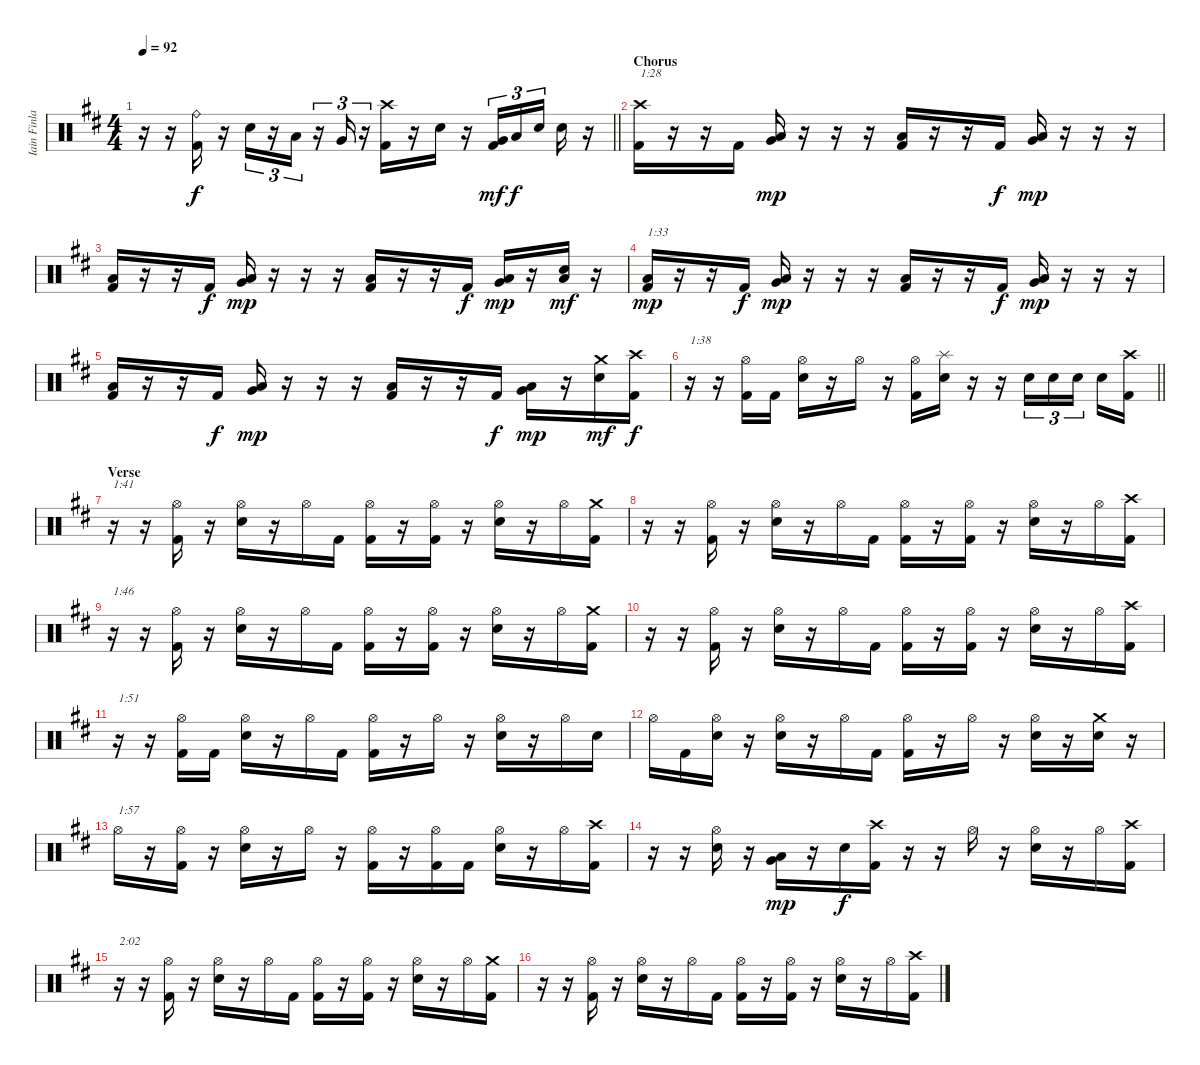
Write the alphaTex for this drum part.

\track ("Iain Finlay" "Iain Finla") {instrument percussion}
\staff {score}
\articulation defaults
\ts (4 4)
\tempo 92
\clef neutral
\barLineRight lightlight
\ks bminor
r.16{dy f} r.16 ("Ride (bell)" "Kick (hit) 2").16 r.16 "Electric Snare (hit)".16{tu (3 2)} r.16{tu (3 2)} "Low Tom (hit)".16{tu (3 2)} r.16{tu (3 2)} "Very Low Tom (hit)".16{tu (3 2)} r.16{tu (3 2)} ("Crash high (hit)" "Kick (hit) 2").16 r.16 "Electric Snare (hit)".16 r.16 ("Very Low Tom (hit)" "Kick (hit) 2").16{tu (3 2) dy mf} "Low Floor Tom (hit)".16{tu (3 2) dy f} "Electric Snare (hit)".16{tu (3 2) beam splitsecondary} "Electric Snare (hit)".16 r.16 |
\section ("" "Chorus")
("Crash high (hit)" "Kick (hit) 2").16{txt "1:28"} r.16 r.16 "Kick (hit) 2".16 ("Low Floor Tom (hit)" "Very Low Tom (hit)").16{dy mp} r.16 r.16 r.16 ("Low Floor Tom (hit)" "Kick (hit) 2").16 r.16 r.16 "Kick (hit) 2".16{dy f} ("Low Floor Tom (hit)" "Very Low Tom (hit)").16{dy mp} r.16 r.16 r.16 |
("Low Floor Tom (hit)" "Kick (hit) 2").16 r.16 r.16 "Kick (hit) 2".16{dy f} ("Low Floor Tom (hit)" "Very Low Tom (hit)").16{dy mp} r.16 r.16 r.16 ("Low Floor Tom (hit)" "Kick (hit) 2").16 r.16 r.16 "Kick (hit) 2".16{dy f} ("Low Floor Tom (hit)" "Very Low Tom (hit)").16{dy mp} r.16 ("Low Floor Tom (hit)" "Electric Snare (hit)").16{dy mf} r.16 |
("Low Floor Tom (hit)" "Kick (hit) 2").16{txt "1:33" dy mp} r.16 r.16 "Kick (hit) 2".16{dy f} ("Low Floor Tom (hit)" "Very Low Tom (hit)").16{dy mp} r.16 r.16 r.16 ("Low Floor Tom (hit)" "Kick (hit) 2").16 r.16 r.16 "Kick (hit) 2".16{dy f} ("Low Floor Tom (hit)" "Very Low Tom (hit)").16{dy mp} r.16 r.16 r.16 |
("Low Floor Tom (hit)" "Kick (hit) 2").16 r.16 r.16 "Kick (hit) 2".16{dy f} ("Low Floor Tom (hit)" "Very Low Tom (hit)").16{dy mp} r.16 r.16 r.16 ("Low Floor Tom (hit)" "Kick (hit) 2").16 r.16 r.16 "Kick (hit) 2".16{dy f} ("Low Floor Tom (hit)" "Very Low Tom (hit)").16{dy mp} r.16 ("Crash medium (hit)" "Electric Snare (hit)").16{dy mf} ("Crash high (hit)" "Kick (hit) 2").16{dy f} |
\barLineRight lightlight
r.16{txt "1:38"} r.16 ("Hi-Hat (open)" "Kick (hit) 2").16 "Kick (hit) 2".16 ("Hi-Hat (open)" "Electric Snare (hit)").16 r.16 "Hi-Hat (open)".16 r.16 ("Hi-Hat (open)" "Kick (hit) 2").16 ("Splash (hit)" "Electric Snare (hit)").16 r.16 r.16 "Electric Snare (hit)".16{tu (3 2)} "Electric Snare (hit)".16{tu (3 2)} "Electric Snare (hit)".16{tu (3 2) beam splitsecondary} "Electric Snare (hit)".16 ("Crash high (hit)" "Kick (hit) 2").16 |
\section ("" "Verse")
r.16{txt "1:41"} r.16 ("Hi-Hat (open)" "Kick (hit) 2").16 r.16 ("Hi-Hat (open)" "Electric Snare (hit)").16 r.16 "Hi-Hat (open)".16 "Kick (hit) 2".16 ("Hi-Hat (open)" "Kick (hit) 2").16 r.16 ("Hi-Hat (open)" "Kick (hit) 2").16 r.16 ("Hi-Hat (open)" "Electric Snare (hit)").16 r.16 "Hi-Hat (open)".16 ("Crash medium (hit)" "Kick (hit) 2").16 |
r.16 r.16 ("Hi-Hat (open)" "Kick (hit) 2").16 r.16 ("Hi-Hat (open)" "Electric Snare (hit)").16 r.16 "Hi-Hat (open)".16 "Kick (hit) 2".16 ("Hi-Hat (open)" "Kick (hit) 2").16 r.16 ("Hi-Hat (open)" "Kick (hit) 2").16 r.16 ("Hi-Hat (open)" "Electric Snare (hit)").16 r.16 "Hi-Hat (open)".16 ("Crash high (hit)" "Kick (hit) 2").16 |
r.16{txt "1:46"} r.16 ("Hi-Hat (open)" "Kick (hit) 2").16 r.16 ("Hi-Hat (open)" "Electric Snare (hit)").16 r.16 "Hi-Hat (open)".16 "Kick (hit) 2".16 ("Hi-Hat (open)" "Kick (hit) 2").16 r.16 ("Hi-Hat (open)" "Kick (hit) 2").16 r.16 ("Hi-Hat (open)" "Electric Snare (hit)").16 r.16 "Hi-Hat (open)".16 ("Crash medium (hit)" "Kick (hit) 2").16 |
r.16 r.16 ("Hi-Hat (open)" "Kick (hit) 2").16 r.16 ("Hi-Hat (open)" "Electric Snare (hit)").16 r.16 "Hi-Hat (open)".16 "Kick (hit) 2".16 ("Hi-Hat (open)" "Kick (hit) 2").16 r.16 ("Hi-Hat (open)" "Kick (hit) 2").16 r.16 ("Hi-Hat (open)" "Electric Snare (hit)").16 r.16 "Hi-Hat (open)".16 ("Crash high (hit)" "Kick (hit) 2").16 |
r.16{txt "1:51"} r.16 ("Hi-Hat (open)" "Kick (hit) 2").16 "Kick (hit) 2".16 ("Hi-Hat (open)" "Electric Snare (hit)").16 r.16 "Hi-Hat (open)".16 "Kick (hit) 2".16 ("Hi-Hat (open)" "Kick (hit) 2").16 r.16 "Hi-Hat (open)".16 r.16 ("Hi-Hat (open)" "Electric Snare (hit)").16 r.16 "Hi-Hat (open)".16 "Electric Snare (hit)".16 |
"Hi-Hat (open)".16 "Kick (hit) 2".16 ("Hi-Hat (open)" "Electric Snare (hit)").16 r.16 ("Hi-Hat (open)" "Electric Snare (hit)").16 r.16 "Hi-Hat (open)".16 "Kick (hit) 2".16 ("Hi-Hat (open)" "Kick (hit) 2").16 r.16 "Hi-Hat (open)".16 r.16 ("Hi-Hat (open)" "Electric Snare (hit)").16 r.16 ("Crash medium (hit)" "Electric Snare (hit)").16 r.16 |
"Hi-Hat (open)".16{txt "1:57"} r.16 ("Hi-Hat (open)" "Kick (hit) 2").16 r.16 ("Hi-Hat (open)" "Electric Snare (hit)").16 r.16 "Hi-Hat (open)".16 r.16 ("Hi-Hat (open)" "Kick (hit) 2").16 r.16 ("Hi-Hat (open)" "Kick (hit) 2").16 "Kick (hit) 2".16 ("Hi-Hat (open)" "Electric Snare (hit)").16 r.16 "Hi-Hat (open)".16 ("Crash high (hit)" "Kick (hit) 2").16 |
r.16 r.16 ("Hi-Hat (open)" "Electric Snare (hit)").16 r.16 ("Low Floor Tom (hit)" "Very Low Tom (hit)").16{dy mp} r.16 "Electric Snare (hit)".16{dy f} ("Crash high (hit)" "Kick (hit) 2").16 r.16 r.16 "Hi-Hat (open)".16 r.16 ("Hi-Hat (open)" "Electric Snare (hit)").16 r.16 "Hi-Hat (open)".16 ("Crash high (hit)" "Kick (hit) 2").16 |
r.16{txt "2:02"} r.16 ("Hi-Hat (open)" "Kick (hit) 2").16 r.16 ("Hi-Hat (open)" "Electric Snare (hit)").16 r.16 "Hi-Hat (open)".16 "Kick (hit) 2".16 ("Hi-Hat (open)" "Kick (hit) 2").16 r.16 ("Hi-Hat (open)" "Kick (hit) 2").16 r.16 ("Hi-Hat (open)" "Electric Snare (hit)").16 r.16 "Hi-Hat (open)".16 ("Crash medium (hit)" "Kick (hit) 2").16 |
r.16 r.16 ("Hi-Hat (open)" "Kick (hit) 2").16 r.16 ("Hi-Hat (open)" "Electric Snare (hit)").16 r.16 "Hi-Hat (open)".16 "Kick (hit) 2".16 ("Hi-Hat (open)" "Kick (hit) 2").16 r.16 ("Hi-Hat (open)" "Kick (hit) 2").16 r.16 ("Hi-Hat (open)" "Electric Snare (hit)").16 r.16 "Hi-Hat (open)".16 ("Crash high (hit)" "Kick (hit) 2").16
